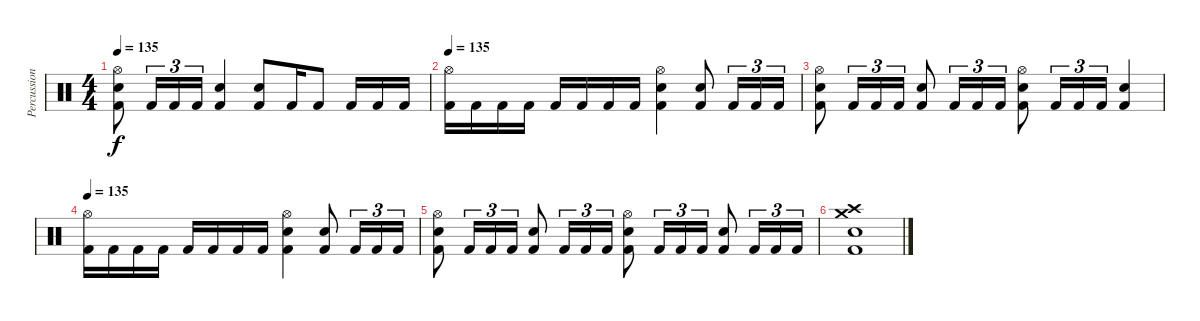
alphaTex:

\track ("Percussion" "Percussion") {instrument percussion}
\staff {score}
\articulation defaults
\ts (4 4)
\tempo 135
\clef neutral
\ks c
("Hi-Hat (open)" "Electric Snare (hit)" "Kick (hit) 2").8{dy f} "Kick (hit) 2".16{tu (3 2)} "Kick (hit) 2".16{tu (3 2)} "Kick (hit) 2".16{tu (3 2)} ("Electric Snare (hit)" "Kick (hit) 2").4 ("Electric Snare (hit)" "Kick (hit) 2").8 "Kick (hit) 2".16 "Kick (hit) 2".8 "Kick (hit) 2".16 "Kick (hit) 2".16 "Kick (hit) 2".16 |
\tempo 135
("Hi-Hat (open)" "Kick (hit) 2").16 "Kick (hit) 2".16 "Kick (hit) 2".16 "Kick (hit) 2".16 "Kick (hit) 2".16 "Kick (hit) 2".16 "Kick (hit) 2".16 "Kick (hit) 2".16 ("Hi-Hat (open)" "Electric Snare (hit)" "Kick (hit) 2").4 ("Electric Snare (hit)" "Kick (hit) 2").8 "Kick (hit) 2".16{tu (3 2)} "Kick (hit) 2".16{tu (3 2)} "Kick (hit) 2".16{tu (3 2)} |
("Hi-Hat (open)" "Electric Snare (hit)" "Kick (hit) 2").8 "Kick (hit) 2".16{tu (3 2)} "Kick (hit) 2".16{tu (3 2)} "Kick (hit) 2".16{tu (3 2)} ("Electric Snare (hit)" "Kick (hit) 2").8 "Kick (hit) 2".16{tu (3 2)} "Kick (hit) 2".16{tu (3 2)} "Kick (hit) 2".16{tu (3 2)} ("Hi-Hat (open)" "Electric Snare (hit)" "Kick (hit) 2").8 "Kick (hit) 2".16{tu (3 2)} "Kick (hit) 2".16{tu (3 2)} "Kick (hit) 2".16{tu (3 2)} ("Electric Snare (hit)" "Kick (hit) 2").4 |
\tempo 135
("Hi-Hat (open)" "Kick (hit) 2").16 "Kick (hit) 2".16 "Kick (hit) 2".16 "Kick (hit) 2".16 "Kick (hit) 2".16 "Kick (hit) 2".16 "Kick (hit) 2".16 "Kick (hit) 2".16 ("Hi-Hat (open)" "Electric Snare (hit)" "Kick (hit) 2").4 ("Electric Snare (hit)" "Kick (hit) 2").8 "Kick (hit) 2".16{tu (3 2)} "Kick (hit) 2".16{tu (3 2)} "Kick (hit) 2".16{tu (3 2)} |
("Hi-Hat (open)" "Electric Snare (hit)" "Kick (hit) 2").8 "Kick (hit) 2".16{tu (3 2)} "Kick (hit) 2".16{tu (3 2)} "Kick (hit) 2".16{tu (3 2)} ("Electric Snare (hit)" "Kick (hit) 2").8 "Kick (hit) 2".16{tu (3 2)} "Kick (hit) 2".16{tu (3 2)} "Kick (hit) 2".16{tu (3 2)} ("Hi-Hat (open)" "Electric Snare (hit)" "Kick (hit) 2").8 "Kick (hit) 2".16{tu (3 2)} "Kick (hit) 2".16{tu (3 2)} "Kick (hit) 2".16{tu (3 2)} ("Electric Snare (hit)" "Kick (hit) 2").8 "Kick (hit) 2".16{tu (3 2)} "Kick (hit) 2".16{tu (3 2)} "Kick (hit) 2".16{tu (3 2)} |
("Crash medium (hit)" "Crash high (hit)" "Electric Snare (hit)" "Kick (hit) 2").1
